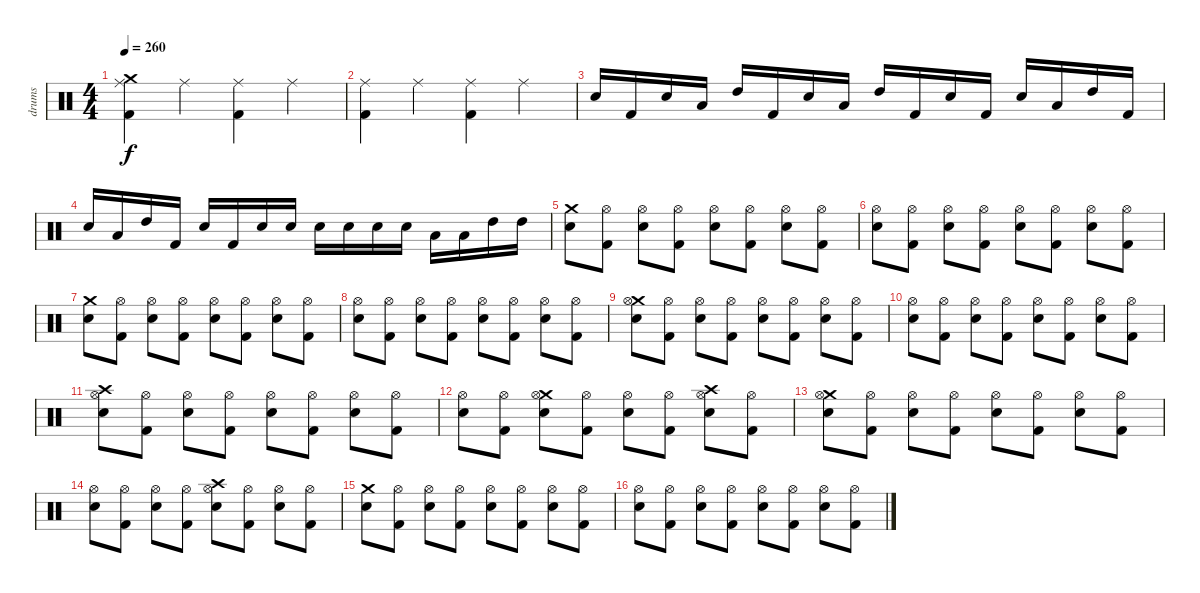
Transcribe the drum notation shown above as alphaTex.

\track ("drums" "drums") {instrument percussion}
\staff {score}
\articulation defaults
\ts (4 4)
\tempo 260
\clef neutral
\ks c
("Crash medium (hit)" "Ride (middle)" "Kick (hit) 2").4{dy f} "Ride (middle)".4 ("Ride (middle)" "Kick (hit) 2").4 "Ride (middle)".4 |
("Ride (middle)" "Kick (hit) 2").4 "Ride (middle)".4 ("Ride (middle)" "Kick (hit) 2").4 "Ride (middle)".4 |
"Electric Snare (hit)".16 "Kick (hit) 2".16 "Electric Snare (hit)".16 "Low Tom (hit)".16 "High Tom (hit)".16 "Kick (hit) 2".16 "Electric Snare (hit)".16 "Low Tom (hit)".16 "High Tom (hit)".16 "Kick (hit) 2".16 "Electric Snare (hit)".16 "Kick (hit) 2".16 "Electric Snare (hit)".16 "Low Tom (hit)".16 "High Tom (hit)".16 "Kick (hit) 2".16 |
"Electric Snare (hit)".16 "Low Tom (hit)".16 "High Tom (hit)".16 "Kick (hit) 2".16 "Electric Snare (hit)".16 "Kick (hit) 2".16 "Electric Snare (hit)".16 "Electric Snare (hit)".16 "Electric Snare (hit)".16 "Electric Snare (hit)".16 "Electric Snare (hit)".16 "Electric Snare (hit)".16 "Low Tom (hit)".16 "Low Tom (hit)".16 "High Tom (hit)".16 "High Tom (hit)".16 |
("Crash medium (hit)" "Electric Snare (hit)").8 ("Hi-Hat (open)" "Kick (hit) 2").8 ("Hi-Hat (open)" "Electric Snare (hit)").8 ("Hi-Hat (open)" "Kick (hit) 2").8 ("Hi-Hat (open)" "Electric Snare (hit)").8 ("Hi-Hat (open)" "Kick (hit) 2").8 ("Hi-Hat (open)" "Electric Snare (hit)").8 ("Hi-Hat (open)" "Kick (hit) 2").8 |
("Hi-Hat (open)" "Electric Snare (hit)").8 ("Hi-Hat (open)" "Kick (hit) 2").8 ("Hi-Hat (open)" "Electric Snare (hit)").8 ("Hi-Hat (open)" "Kick (hit) 2").8 ("Hi-Hat (open)" "Electric Snare (hit)").8 ("Hi-Hat (open)" "Kick (hit) 2").8 ("Hi-Hat (open)" "Electric Snare (hit)").8 ("Hi-Hat (open)" "Kick (hit) 2").8 |
("Crash medium (hit)" "Electric Snare (hit)").8 ("Hi-Hat (open)" "Kick (hit) 2").8 ("Hi-Hat (open)" "Electric Snare (hit)").8 ("Hi-Hat (open)" "Kick (hit) 2").8 ("Hi-Hat (open)" "Electric Snare (hit)").8 ("Hi-Hat (open)" "Kick (hit) 2").8 ("Hi-Hat (open)" "Electric Snare (hit)").8 ("Hi-Hat (open)" "Kick (hit) 2").8 |
("Hi-Hat (open)" "Electric Snare (hit)").8 ("Hi-Hat (open)" "Kick (hit) 2").8 ("Hi-Hat (open)" "Electric Snare (hit)").8 ("Hi-Hat (open)" "Kick (hit) 2").8 ("Hi-Hat (open)" "Electric Snare (hit)").8 ("Hi-Hat (open)" "Kick (hit) 2").8 ("Hi-Hat (open)" "Electric Snare (hit)").8 ("Hi-Hat (open)" "Kick (hit) 2").8 |
("Crash medium (hit)" "Hi-Hat (open)" "Electric Snare (hit)").8 ("Hi-Hat (open)" "Kick (hit) 2").8 ("Hi-Hat (open)" "Electric Snare (hit)").8 ("Hi-Hat (open)" "Kick (hit) 2").8 ("Hi-Hat (open)" "Electric Snare (hit)").8 ("Hi-Hat (open)" "Kick (hit) 2").8 ("Hi-Hat (open)" "Electric Snare (hit)").8 ("Hi-Hat (open)" "Kick (hit) 2").8 |
("Hi-Hat (open)" "Electric Snare (hit)").8 ("Hi-Hat (open)" "Kick (hit) 2").8 ("Hi-Hat (open)" "Electric Snare (hit)").8 ("Hi-Hat (open)" "Kick (hit) 2").8 ("Hi-Hat (open)" "Electric Snare (hit)").8 ("Hi-Hat (open)" "Kick (hit) 2").8 ("Hi-Hat (open)" "Electric Snare (hit)").8 ("Hi-Hat (open)" "Kick (hit) 2").8 |
("Crash high (hit)" "Hi-Hat (open)" "Electric Snare (hit)").8 ("Hi-Hat (open)" "Kick (hit) 2").8 ("Hi-Hat (open)" "Electric Snare (hit)").8 ("Hi-Hat (open)" "Kick (hit) 2").8 ("Hi-Hat (open)" "Electric Snare (hit)").8 ("Hi-Hat (open)" "Kick (hit) 2").8 ("Hi-Hat (open)" "Electric Snare (hit)").8 ("Hi-Hat (open)" "Kick (hit) 2").8 |
("Hi-Hat (open)" "Electric Snare (hit)").8 ("Hi-Hat (open)" "Kick (hit) 2").8 ("Crash medium (hit)" "Hi-Hat (open)" "Electric Snare (hit)").8 ("Hi-Hat (open)" "Kick (hit) 2").8 ("Hi-Hat (open)" "Electric Snare (hit)").8 ("Hi-Hat (open)" "Kick (hit) 2").8 ("Crash high (hit)" "Hi-Hat (open)" "Electric Snare (hit)").8 ("Hi-Hat (open)" "Kick (hit) 2").8 |
("Crash medium (hit)" "Hi-Hat (open)" "Electric Snare (hit)").8 ("Hi-Hat (open)" "Kick (hit) 2").8 ("Hi-Hat (open)" "Electric Snare (hit)").8 ("Hi-Hat (open)" "Kick (hit) 2").8 ("Hi-Hat (open)" "Electric Snare (hit)").8 ("Hi-Hat (open)" "Kick (hit) 2").8 ("Hi-Hat (open)" "Electric Snare (hit)").8 ("Hi-Hat (open)" "Kick (hit) 2").8 |
("Hi-Hat (open)" "Electric Snare (hit)").8 ("Hi-Hat (open)" "Kick (hit) 2").8 ("Hi-Hat (open)" "Electric Snare (hit)").8 ("Hi-Hat (open)" "Kick (hit) 2").8 ("Crash high (hit)" "Hi-Hat (open)" "Electric Snare (hit)").8 ("Hi-Hat (open)" "Kick (hit) 2").8 ("Hi-Hat (open)" "Electric Snare (hit)").8 ("Hi-Hat (open)" "Kick (hit) 2").8 |
("Crash medium (hit)" "Electric Snare (hit)").8 ("Hi-Hat (open)" "Kick (hit) 2").8 ("Hi-Hat (open)" "Electric Snare (hit)").8 ("Hi-Hat (open)" "Kick (hit) 2").8 ("Hi-Hat (open)" "Electric Snare (hit)").8 ("Hi-Hat (open)" "Kick (hit) 2").8 ("Hi-Hat (open)" "Electric Snare (hit)").8 ("Hi-Hat (open)" "Kick (hit) 2").8 |
("Hi-Hat (open)" "Electric Snare (hit)").8 ("Hi-Hat (open)" "Kick (hit) 2").8 ("Hi-Hat (open)" "Electric Snare (hit)").8 ("Hi-Hat (open)" "Kick (hit) 2").8 ("Hi-Hat (open)" "Electric Snare (hit)").8 ("Hi-Hat (open)" "Kick (hit) 2").8 ("Hi-Hat (open)" "Electric Snare (hit)").8 ("Hi-Hat (open)" "Kick (hit) 2").8
